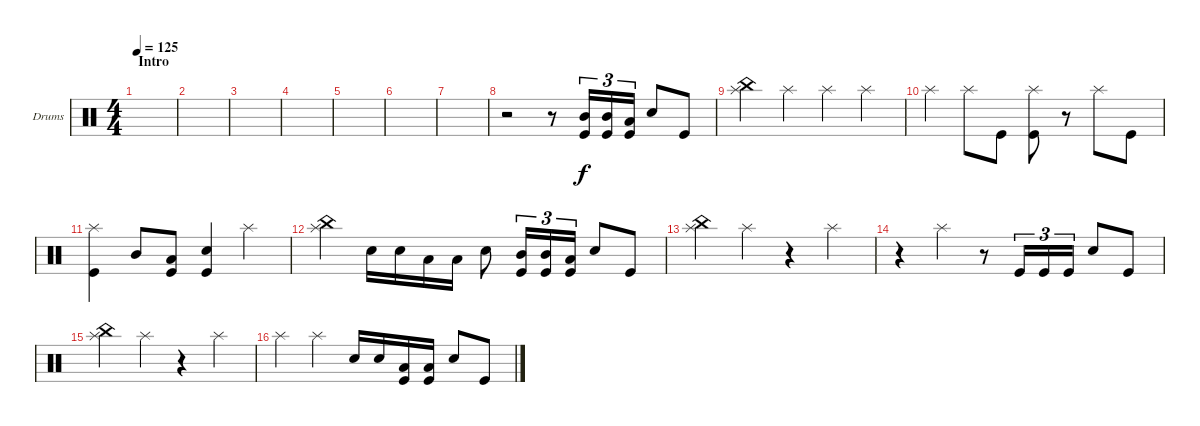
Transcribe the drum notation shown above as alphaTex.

\defaultSystemsLayout 4
\bracketExtendMode groupsimilarinstruments
\firstSystemTrackNameOrientation horizontal
\otherSystemsTrackNameOrientation horizontal
\track ("Drumkit" "Drums") {instrument percussion}
\staff {score}
\articulation defaults
\ts (4 4)
\section ("" "Intro")
\tempo 125
\clef neutral
\ks c
|
|
|
|
|
|
|
r.2 r.8 ("Kick (hit)" "Mid Tom (hit)").16{tu (3 2)} ("Kick (hit)" "Mid Tom (hit)").16{tu (3 2)} ("Kick (hit)" "Low Tom (hit)").16{tu (3 2)} "Snare (hit) 2".8 "Kick (hit)".8 |
("Splash (hit)" "China (hit)").4 "Splash (hit)".4 "Splash (hit)".4 "Splash (hit)".4 |
"Splash (hit)".4 "Splash (hit)".8 "Kick (hit)".8 ("Splash (hit)" "Kick (hit)").8 r.8 "Splash (hit)".8 "Kick (hit)".8 |
("Splash (hit)" "Kick (hit)").4 "Mid Tom (hit)".8 ("Kick (hit)" "Low Tom (hit)").8 ("Snare (hit) 2" "Kick (hit)").4 "Splash (hit)".4 |
("Splash (hit)" "China (hit)").4 "Snare (hit) 2".16 "Snare (hit) 2".16 "Low Tom (hit)".16 "Low Tom (hit)".16 "Snare (hit) 2".8 ("Kick (hit)" "Mid Tom (hit)").16{tu (3 2)} ("Kick (hit)" "Mid Tom (hit)").16{tu (3 2)} ("Kick (hit)" "Low Tom (hit)").16{tu (3 2)} "Snare (hit) 2".8 "Kick (hit)".8 |
("Splash (hit)" "China (hit)").4 "Splash (hit)".4 r.4 "Splash (hit)".4 |
r.4 "Splash (hit)".4 r.8 "Kick (hit)".16{tu (3 2)} "Kick (hit)".16{tu (3 2)} "Kick (hit)".16{tu (3 2)} "Snare (hit) 2".8 "Kick (hit)".8 |
("Splash (hit)" "China (hit)").4 "Splash (hit)".4 r.4 "Splash (hit)".4 |
"Splash (hit)".4 "Splash (hit)".4 "Snare (hit) 2".16 "Snare (hit) 2".16 ("Low Tom (hit)" "Kick (hit)").16 ("Low Tom (hit)" "Kick (hit)").16 "Snare (hit) 2".8 "Kick (hit)".8
